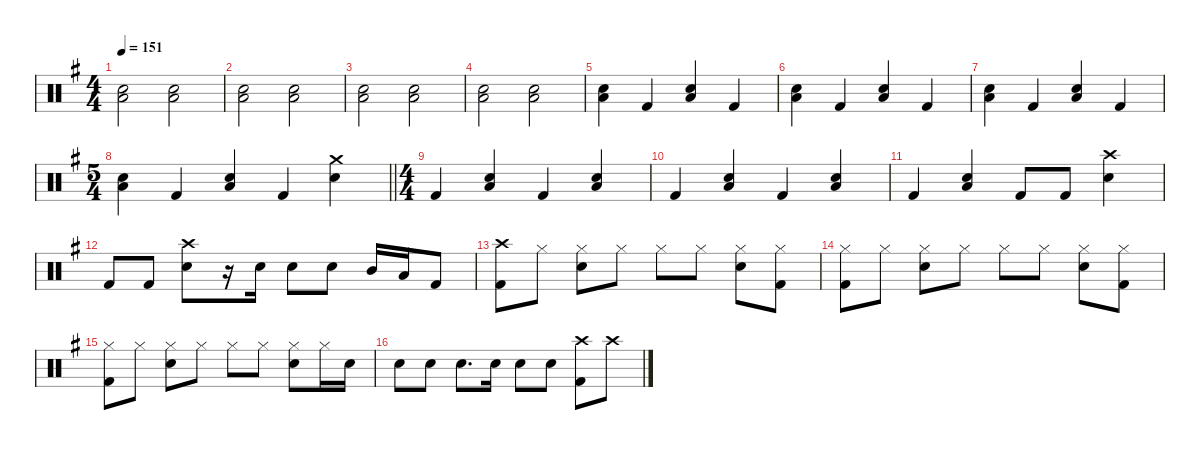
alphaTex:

\defaultSystemsLayout 4
\hideDynamics
\bracketExtendMode nobrackets
\singleTrackTrackNamePolicy hidden
\multiTrackTrackNamePolicy hidden
\otherSystemsTrackNameOrientation horizontal
\track ("Lars Ulrich" "drm.") {instrument percussion}
\staff {score}
\articulation defaults
\ts (4 4)
\beaming (8 2 2 2 2)
\tempo 151
\clef neutral
\ks eminor
("Snare (hit) 2"{acc forcenatural} "Low Floor Tom (hit)"{acc forcenatural}).2{dy f beam Down} ("Snare (hit) 2"{acc forcenatural} "Low Floor Tom (hit)"{acc forcenatural}).2{beam Down} |
("Snare (hit) 2"{acc forcenatural} "Low Floor Tom (hit)"{acc forcenatural}).2{beam Down} ("Snare (hit) 2"{acc forcenatural} "Low Floor Tom (hit)"{acc forcenatural}).2{beam Down} |
("Snare (hit) 2"{acc forcenatural} "Low Floor Tom (hit)"{acc forcenatural}).2{beam Down} ("Snare (hit) 2"{acc forcenatural} "Low Floor Tom (hit)"{acc forcenatural}).2{beam Down} |
("Snare (hit) 2"{acc forcenatural} "Low Floor Tom (hit)"{acc forcenatural}).2{beam Down} ("Snare (hit) 2"{acc forcenatural} "Low Floor Tom (hit)"{acc forcenatural}).2{beam Down} |
("Snare (hit) 2"{acc forcenatural} "Low Floor Tom (hit)"{acc forcenatural}).4{beam Down} "Kick (hit) 2"{acc forcenatural}.4{beam Up} ("Snare (hit) 2"{acc forcenatural} "Low Floor Tom (hit)"{acc forcenatural}).4{beam Up} "Kick (hit) 2"{acc forcenatural}.4{beam Up} |
("Snare (hit) 2"{acc forcenatural} "Low Floor Tom (hit)"{acc forcenatural}).4{beam Down} "Kick (hit) 2"{acc forcenatural}.4{beam Up} ("Snare (hit) 2"{acc forcenatural} "Low Floor Tom (hit)"{acc forcenatural}).4{beam Up} "Kick (hit) 2"{acc forcenatural}.4{beam Up} |
("Snare (hit) 2"{acc forcenatural} "Low Floor Tom (hit)"{acc forcenatural}).4{beam Down} "Kick (hit) 2"{acc forcenatural}.4{beam Up} ("Snare (hit) 2"{acc forcenatural} "Low Floor Tom (hit)"{acc forcenatural}).4{beam Up} "Kick (hit) 2"{acc forcenatural}.4{beam Up} |
\ts (5 4)
\beaming (8 6 4)
\barLineRight lightlight
("Snare (hit) 2"{acc forcenatural} "Low Floor Tom (hit)"{acc forcenatural}).4{beam Down} "Kick (hit) 2"{acc forcenatural}.4{beam Up} ("Snare (hit) 2"{acc forcenatural} "Low Floor Tom (hit)"{acc forcenatural}).4{beam Up} "Kick (hit) 2"{acc forcenatural}.4{beam Up} ("Crash medium (hit)"{acc forcenatural} "Snare (hit) 2"{acc forcenatural}).4{beam Down} |
\ts (4 4)
\beaming (8 2 2 2 2)
"Kick (hit) 2"{acc forcenatural}.4{beam Up} ("Low Floor Tom (hit)"{acc forcenatural} "Snare (hit) 2"{acc forcenatural}).4{beam Up} "Kick (hit) 2"{acc forcenatural}.4{beam Up} ("Low Floor Tom (hit)"{acc forcenatural} "Snare (hit) 2"{acc forcenatural}).4{beam Up} |
"Kick (hit) 2"{acc forcenatural}.4{beam Up} ("Low Floor Tom (hit)"{acc forcenatural} "Snare (hit) 2"{acc forcenatural}).4{beam Up} "Kick (hit) 2"{acc forcenatural}.4{beam Up} ("Low Floor Tom (hit)"{acc forcenatural} "Snare (hit) 2"{acc forcenatural}).4{beam Up} |
"Kick (hit) 2"{acc forcenatural}.4{beam Up} ("Low Floor Tom (hit)"{acc forcenatural} "Snare (hit) 2"{acc forcenatural}).4{beam Up} "Kick (hit) 2"{acc forcenatural}.8{beam Up} "Kick (hit) 2"{acc forcenatural}.8{beam Up} ("Crash high (hit)"{acc forcenatural} "Snare (hit) 2"{acc forcenatural}).4{beam Down} |
"Kick (hit) 2"{acc forcenatural}.8{beam Up} "Kick (hit) 2"{acc forcenatural}.8{beam Up} ("Crash high (hit)"{acc forcenatural} "Snare (hit) 2"{acc forcenatural}).8{beam Down} r.16{beam Down} "Snare (hit) 2"{acc forcenatural}.16{beam Down} "Snare (hit) 2"{acc forcenatural}.8{beam Down} "Snare (hit) 2"{acc forcenatural}.8{beam Down} "Mid Tom (hit)"{acc forcenatural}.16{beam Up} "Low Tom (hit)"{acc forcenatural}.16{beam Up} "Kick (hit) 2"{acc forcenatural}.8{beam Up} |
("Crash high (hit)"{acc forcenatural} "Kick (hit) 2"{acc forcenatural}).8{beam Down} "Hi-Hat (closed)"{acc forcenatural}.8{beam Down} ("Hi-Hat (closed)"{acc forcenatural} "Snare (hit) 2"{acc forcenatural}).8{beam Down} "Hi-Hat (closed)"{acc forcenatural}.8{beam Down} "Hi-Hat (closed)"{acc forcenatural}.8{beam Down} "Hi-Hat (closed)"{acc forcenatural}.8{beam Down} ("Hi-Hat (closed)"{acc forcenatural} "Snare (hit) 2"{acc forcenatural}).8{beam Down} ("Hi-Hat (closed)"{acc forcenatural} "Kick (hit) 2"{acc forcenatural}).8{beam Down} |
("Hi-Hat (closed)"{acc forcenatural} "Kick (hit) 2"{acc forcenatural}).8{beam Down} "Hi-Hat (closed)"{acc forcenatural}.8{beam Down} ("Hi-Hat (closed)"{acc forcenatural} "Snare (hit) 2"{acc forcenatural}).8{beam Down} "Hi-Hat (closed)"{acc forcenatural}.8{beam Down} "Hi-Hat (closed)"{acc forcenatural}.8{beam Down} "Hi-Hat (closed)"{acc forcenatural}.8{beam Down} ("Hi-Hat (closed)"{acc forcenatural} "Snare (hit) 2"{acc forcenatural}).8{beam Down} ("Hi-Hat (closed)"{acc forcenatural} "Kick (hit) 2"{acc forcenatural}).8{beam Down} |
("Hi-Hat (closed)"{acc forcenatural} "Kick (hit) 2"{acc forcenatural}).8{beam Down} "Hi-Hat (closed)"{acc forcenatural}.8{beam Down} ("Hi-Hat (closed)"{acc forcenatural} "Snare (hit) 2"{acc forcenatural}).8{beam Down} "Hi-Hat (closed)"{acc forcenatural}.8{beam Down} "Hi-Hat (closed)"{acc forcenatural}.8{beam Down} "Hi-Hat (closed)"{acc forcenatural}.8{beam Down} ("Hi-Hat (closed)"{acc forcenatural} "Snare (hit) 2"{acc forcenatural}).8{beam Down} "Hi-Hat (closed)"{acc forcenatural}.16{beam Down} "Snare (hit) 2"{acc forcenatural}.16{beam Down} |
"Snare (hit) 2"{acc forcenatural}.8{beam Down} "Snare (hit) 2"{acc forcenatural}.8{beam Down} "Snare (hit) 2"{acc forcenatural}.8{d beam Down} "Snare (hit) 2"{acc forcenatural}.16{beam Down} "Snare (hit) 2"{acc forcenatural}.8{beam Down} "Snare (hit) 2"{acc forcenatural}.8{beam Down} ("Crash high (hit)"{acc forcenatural} "Kick (hit) 2"{acc forcenatural}).8{beam Down} "Crash high (hit)"{acc forcenatural}.8{beam Down}
